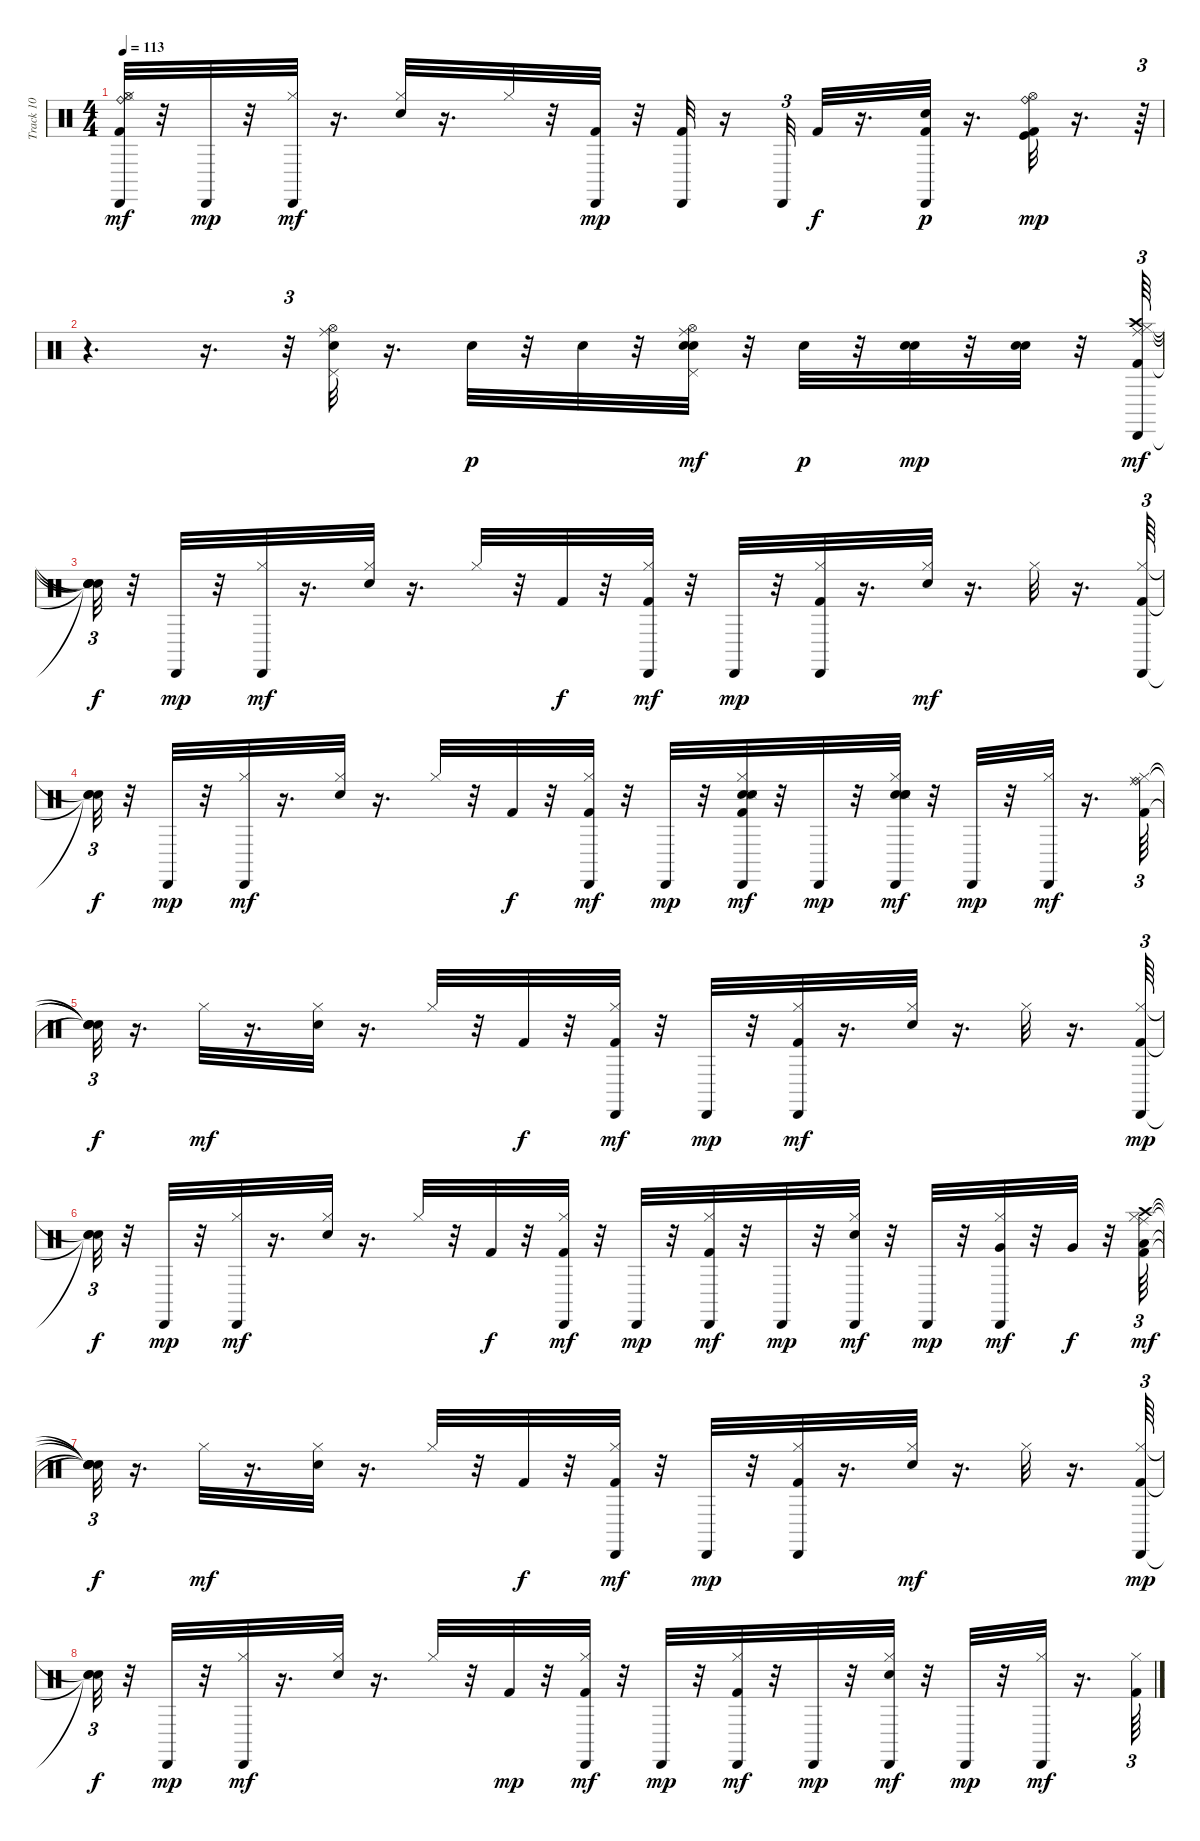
\track ("Track 10" "Track 10") {instrument percussion}
\staff {score}
\articulation defaults
\ts (4 4)
\tempo 113
\clef neutral
\ks c
("Hi-Hat (open)" "Ride (bell)" "Cabasa (hit)" "Hi-Hat (closed)" "Kick (hit) 2").32{dy mf} r.32 "Cabasa (hit)".32{dy mp} r.32 ("Cabasa (hit)" "Hi-Hat (closed)").32{dy mf} r.16{d} ("Hi-Hat (closed)" "Snare (hit) 2").32 r.16{d} "Hi-Hat (closed)".32 r.32 ("Kick (hit) 2" "Cabasa (hit)").32{dy mp} r.32 ("Kick (hit) 2" "Cabasa (hit)").32 r.16 "Cabasa (hit)".32{tu (3 2)} "Kick (hit) 2".32{dy f} r.16{d} ("Cabasa (hit)" "Kick (hit) 2" "Snare (hit) 2").32{dy p} r.16{d} ("Kick (hit)" "Kick (hit) 2" "Hi-Hat (open)" "Ride (bell)").32{dy mp} r.16{d} r.64{tu (3 2)} |
r.4{d} r.16{d} r.32{tu (3 2)} ("Snare (hit) 2" "Ride (middle)" "Pedal Hi-Hat (hit)" "Hi-Hat (open)").32 r.16{d} "Snare (hit) 2".32{dy p} r.32 "Snare (hit) 2".32 r.32 ("Electric Snare (hit)" "Ride (middle)" "Pedal Hi-Hat (hit)" "Snare (hit) 2" "Hi-Hat (open)").32{dy mf} r.32 "Snare (hit) 2".32{dy p} r.32 ("Electric Snare (hit)" "Snare (hit) 2").32{dy mp} r.32 ("Electric Snare (hit)" "Snare (hit) 2").32 r.32 ("Cabasa (hit)" "Crash high (hit)" "Ride (middle)" "Hi-Hat (closed)" "Kick (hit) 2").64{tu (3 2) dy mf} |
("Snare (hit)"{t} "Snare (hit)"{t} "Snare (hit)"{t} "Snare (hit)"{t} "Snare (hit)"{t}).32{tu (3 2) dy f} r.32 "Cabasa (hit)".32{dy mp} r.32 ("Cabasa (hit)" "Hi-Hat (closed)").32{dy mf} r.16{d} ("Hi-Hat (closed)" "Snare (hit) 2").32 r.16{d} "Hi-Hat (closed)".32 r.32 "Kick (hit) 2".32{dy f} r.32 ("Cabasa (hit)" "Hi-Hat (closed)" "Kick (hit) 2").32{dy mf} r.32 "Cabasa (hit)".32{dy mp} r.32 ("Hi-Hat (closed)" "Kick (hit) 2" "Cabasa (hit)").32 r.16{d} ("Hi-Hat (closed)" "Snare (hit) 2").32{dy mf} r.16{d} "Hi-Hat (closed)".32 r.16{d} ("Cabasa (hit)" "Hi-Hat (closed)" "Kick (hit) 2").64{tu (3 2)} |
("Snare (hit)"{t} "Snare (hit)"{t} "Snare (hit)"{t}).32{tu (3 2) dy f} r.32 "Cabasa (hit)".32{dy mp} r.32 ("Cabasa (hit)" "Hi-Hat (closed)").32{dy mf} r.16{d} ("Hi-Hat (closed)" "Snare (hit) 2").32 r.16{d} "Hi-Hat (closed)".32 r.32 "Kick (hit) 2".32{dy f} r.32 ("Cabasa (hit)" "Hi-Hat (closed)" "Kick (hit) 2").32{dy mf} r.32 "Cabasa (hit)".32{dy mp} r.32 ("Cabasa (hit)" "Hand Clap (hit)" "Snare (side stick) 3" "Hi-Hat (closed)" "Hand Clap (hit)" "Kick (hit) 2").32{dy mf} r.32 "Cabasa (hit)".32{dy mp} r.32 ("Cabasa (hit)" "Hand Clap (hit)" "Snare (side stick) 3" "Hi-Hat (closed)" "Hand Clap (hit)" "Snare (hit) 2").32{dy mf} r.32 "Cabasa (hit)".32{dy mp} r.32 ("Cabasa (hit)" "Hi-Hat (closed)").32{dy mf} r.16{d} ("Ride (bell)" "Ride (middle)" "Hi-Hat (closed)" "Kick (hit) 2").64{tu (3 2)} |
("Snare (hit)"{t} "Snare (hit)"{t} "Snare (hit)"{t} "Snare (hit)"{t}).32{tu (3 2) dy f} r.16{d} "Hi-Hat (closed)".32{dy mf} r.16{d} ("Hi-Hat (closed)" "Snare (hit) 2").32 r.16{d} "Hi-Hat (closed)".32 r.32 "Kick (hit) 2".32{dy f} r.32 ("Cabasa (hit)" "Hi-Hat (closed)" "Kick (hit) 2").32{dy mf} r.32 "Cabasa (hit)".32{dy mp} r.32 ("Cabasa (hit)" "Hi-Hat (closed)" "Kick (hit) 2").32{dy mf} r.16{d} ("Hi-Hat (closed)" "Snare (hit) 2").32 r.16{d} "Hi-Hat (closed)".32 r.16{d} ("Hi-Hat (closed)" "Kick (hit) 2" "Cabasa (hit)").64{tu (3 2) dy mp} |
("Snare (hit)"{t} "Snare (hit)"{t} "Snare (hit)"{t}).32{tu (3 2) dy f} r.32 "Cabasa (hit)".32{dy mp} r.32 ("Cabasa (hit)" "Hi-Hat (closed)").32{dy mf} r.16{d} ("Snare (hit) 2" "Hi-Hat (closed)").32 r.16{d} "Hi-Hat (closed)".32 r.32 "Kick (hit) 2".32{dy f} r.32 ("Cabasa (hit)" "Hi-Hat (closed)" "Kick (hit) 2").32{dy mf} r.32 "Cabasa (hit)".32{dy mp} r.32 ("Cabasa (hit)" "Kick (hit) 2" "Hi-Hat (closed)").32{dy mf} r.32 "Cabasa (hit)".32{dy mp} r.32 ("Cabasa (hit)" "Snare (hit) 2" "Hi-Hat (closed)").32{dy mf} r.32 "Cabasa (hit)".32{dy mp} r.32 ("Cabasa (hit)" "Very Low Tom (hit)" "Hi-Hat (closed)").32{dy mf} r.32 "Very Low Tom (hit)".32{dy f} r.32 ("Ride (middle)" "Low Floor Tom (hit)" "Hi-Hat (closed)" "Kick (hit) 2" "Crash high (hit)").64{tu (3 2) dy mf} |
("Snare (hit)"{t} "Snare (hit)"{t} "Snare (hit)"{t} "Snare (hit)"{t} "Snare (hit)"{t}).32{tu (3 2) dy f} r.16{d} "Hi-Hat (closed)".32{dy mf} r.16{d} ("Hi-Hat (closed)" "Snare (hit) 2").32 r.16{d} "Hi-Hat (closed)".32 r.32 "Kick (hit) 2".32{dy f} r.32 ("Cabasa (hit)" "Hi-Hat (closed)" "Kick (hit) 2").32{dy mf} r.32 "Cabasa (hit)".32{dy mp} r.32 ("Hi-Hat (closed)" "Kick (hit) 2" "Cabasa (hit)").32 r.16{d} ("Hi-Hat (closed)" "Snare (hit) 2").32{dy mf} r.16{d} "Hi-Hat (closed)".32 r.16{d} ("Hi-Hat (closed)" "Kick (hit) 2" "Cabasa (hit)").64{tu (3 2) dy mp} |
("Snare (hit)"{t} "Snare (hit)"{t} "Snare (hit)"{t}).32{tu (3 2) dy f} r.32 "Cabasa (hit)".32{dy mp} r.32 ("Cabasa (hit)" "Hi-Hat (closed)").32{dy mf} r.16{d} ("Hi-Hat (closed)" "Snare (hit) 2").32 r.16{d} "Hi-Hat (closed)".32 r.32 "Kick (hit) 2".32{dy mp} r.32 ("Cabasa (hit)" "Hi-Hat (closed)" "Kick (hit) 2").32{dy mf} r.32 "Cabasa (hit)".32{dy mp} r.32 ("Cabasa (hit)" "Kick (hit) 2" "Hi-Hat (closed)").32{dy mf} r.32 "Cabasa (hit)".32{dy mp} r.32 ("Cabasa (hit)" "Hi-Hat (closed)" "Snare (hit) 2").32{dy mf} r.32 "Cabasa (hit)".32{dy mp} r.32 ("Cabasa (hit)" "Hi-Hat (closed)").32{dy mf} r.16{d} ("Kick (hit) 2" "Hi-Hat (closed)").64{tu (3 2)}
